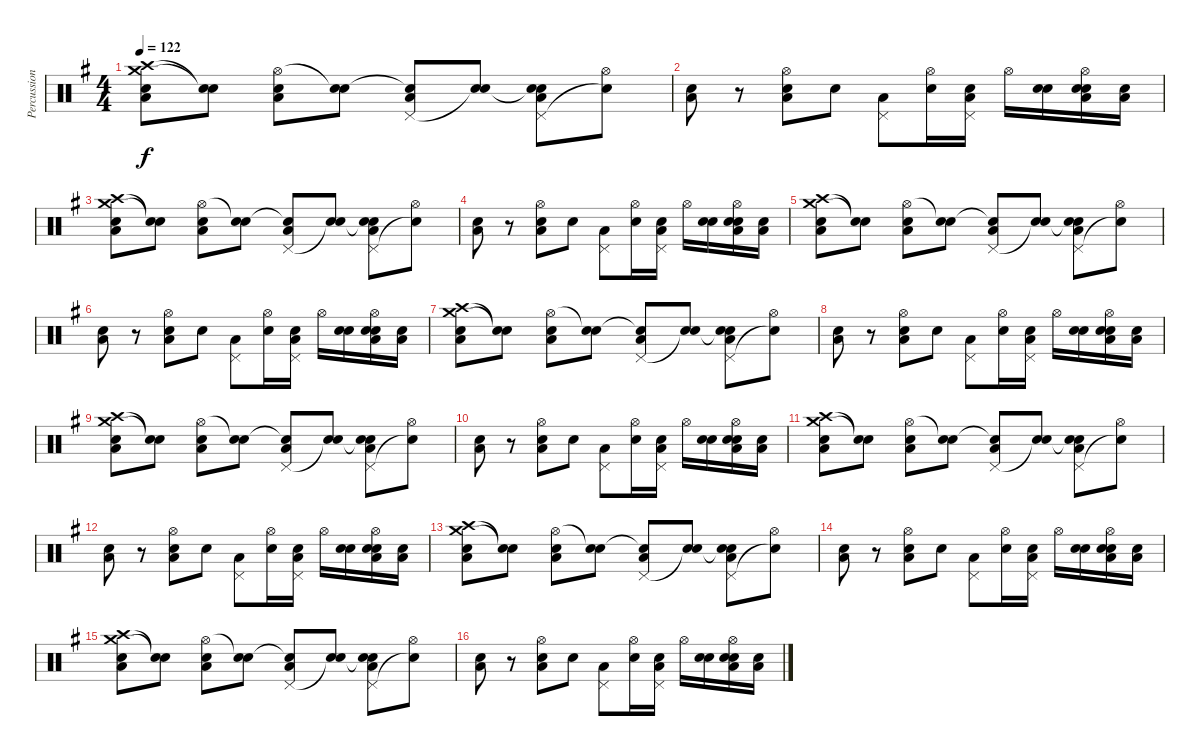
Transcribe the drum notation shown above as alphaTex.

\track ("Percussion" "Percussion") {instrument percussion}
\staff {score}
\articulation defaults
\ts (4 4)
\tempo 122
\clef neutral
\ks g
("Crash medium (hit)" "Crash high (hit)" "Snare (hit) 2" "Low Tom (hit)").8{dy f} ("Snare (hit)"{t} "Snare (hit)"{t}).8 ("Hi-Hat (open)" "Snare (hit) 2" "Low Tom (hit)").8 ("Snare (hit)"{t} "Electric Snare (hit)").8 ("Pedal Hi-Hat (hit)" "Snare (hit)"{t} "Low Tom (hit)").8 ("Snare (hit)"{t} "Snare (hit) 2").8 ("Pedal Hi-Hat (hit)" "Snare (hit)"{t} "Snare (hit) 2" "Low Tom (hit)").8 ("Snare (hit)"{t} "Hi-Hat (open)").8 |
("Snare (hit) 2" "Low Tom (hit)").8 r.8 ("Hi-Hat (open)" "Snare (hit) 2" "Low Tom (hit)").8 "Electric Snare (hit)".8 ("Pedal Hi-Hat (hit)" "Low Tom (hit)").8 ("Hi-Hat (open)" "Snare (hit) 2").16 ("Pedal Hi-Hat (hit)" "Electric Snare (hit)" "Low Tom (hit)").16 "Hi-Hat (open)".16 ("Electric Snare (hit)" "Snare (hit) 2").16 ("Hi-Hat (open)" "Electric Snare (hit)" "Snare (hit) 2" "Low Tom (hit)").16 ("Snare (hit) 2" "Low Tom (hit)").16 |
("Crash medium (hit)" "Crash high (hit)" "Snare (hit) 2" "Low Tom (hit)").8 ("Snare (hit)"{t} "Snare (hit)"{t}).8 ("Hi-Hat (open)" "Snare (hit) 2" "Low Tom (hit)").8 ("Snare (hit)"{t} "Electric Snare (hit)").8 ("Pedal Hi-Hat (hit)" "Snare (hit)"{t} "Low Tom (hit)").8 ("Snare (hit)"{t} "Snare (hit) 2").8 ("Pedal Hi-Hat (hit)" "Snare (hit)"{t} "Snare (hit) 2" "Low Tom (hit)").8 ("Snare (hit)"{t} "Hi-Hat (open)").8 |
("Snare (hit) 2" "Low Tom (hit)").8 r.8 ("Hi-Hat (open)" "Snare (hit) 2" "Low Tom (hit)").8 "Electric Snare (hit)".8 ("Pedal Hi-Hat (hit)" "Low Tom (hit)").8 ("Hi-Hat (open)" "Snare (hit) 2").16 ("Pedal Hi-Hat (hit)" "Electric Snare (hit)" "Low Tom (hit)").16 "Hi-Hat (open)".16 ("Electric Snare (hit)" "Snare (hit) 2").16 ("Hi-Hat (open)" "Electric Snare (hit)" "Snare (hit) 2" "Low Tom (hit)").16 ("Snare (hit) 2" "Low Tom (hit)").16 |
("Crash medium (hit)" "Crash high (hit)" "Snare (hit) 2" "Low Tom (hit)").8 ("Snare (hit)"{t} "Snare (hit)"{t}).8 ("Hi-Hat (open)" "Snare (hit) 2" "Low Tom (hit)").8 ("Snare (hit)"{t} "Electric Snare (hit)").8 ("Pedal Hi-Hat (hit)" "Snare (hit)"{t} "Low Tom (hit)").8 ("Snare (hit)"{t} "Snare (hit) 2").8 ("Pedal Hi-Hat (hit)" "Snare (hit)"{t} "Snare (hit) 2" "Low Tom (hit)").8 ("Snare (hit)"{t} "Hi-Hat (open)").8 |
("Snare (hit) 2" "Low Tom (hit)").8 r.8 ("Hi-Hat (open)" "Snare (hit) 2" "Low Tom (hit)").8 "Electric Snare (hit)".8 ("Pedal Hi-Hat (hit)" "Low Tom (hit)").8 ("Hi-Hat (open)" "Snare (hit) 2").16 ("Pedal Hi-Hat (hit)" "Electric Snare (hit)" "Low Tom (hit)").16 "Hi-Hat (open)".16 ("Electric Snare (hit)" "Snare (hit) 2").16 ("Hi-Hat (open)" "Electric Snare (hit)" "Snare (hit) 2" "Low Tom (hit)").16 ("Snare (hit) 2" "Low Tom (hit)").16 |
("Crash medium (hit)" "Crash high (hit)" "Snare (hit) 2" "Low Tom (hit)").8 ("Snare (hit)"{t} "Snare (hit)"{t}).8 ("Hi-Hat (open)" "Snare (hit) 2" "Low Tom (hit)").8 ("Snare (hit)"{t} "Electric Snare (hit)").8 ("Pedal Hi-Hat (hit)" "Snare (hit)"{t} "Low Tom (hit)").8 ("Snare (hit)"{t} "Snare (hit) 2").8 ("Pedal Hi-Hat (hit)" "Snare (hit)"{t} "Snare (hit) 2" "Low Tom (hit)").8 ("Snare (hit)"{t} "Hi-Hat (open)").8 |
("Snare (hit) 2" "Low Tom (hit)").8 r.8 ("Hi-Hat (open)" "Snare (hit) 2" "Low Tom (hit)").8 "Electric Snare (hit)".8 ("Pedal Hi-Hat (hit)" "Low Tom (hit)").8 ("Hi-Hat (open)" "Snare (hit) 2").16 ("Pedal Hi-Hat (hit)" "Electric Snare (hit)" "Low Tom (hit)").16 "Hi-Hat (open)".16 ("Electric Snare (hit)" "Snare (hit) 2").16 ("Hi-Hat (open)" "Electric Snare (hit)" "Snare (hit) 2" "Low Tom (hit)").16 ("Snare (hit) 2" "Low Tom (hit)").16 |
("Crash medium (hit)" "Crash high (hit)" "Snare (hit) 2" "Low Tom (hit)").8 ("Snare (hit)"{t} "Snare (hit)"{t}).8 ("Hi-Hat (open)" "Snare (hit) 2" "Low Tom (hit)").8 ("Snare (hit)"{t} "Electric Snare (hit)").8 ("Pedal Hi-Hat (hit)" "Snare (hit)"{t} "Low Tom (hit)").8 ("Snare (hit)"{t} "Snare (hit) 2").8 ("Pedal Hi-Hat (hit)" "Snare (hit)"{t} "Snare (hit) 2" "Low Tom (hit)").8 ("Snare (hit)"{t} "Hi-Hat (open)").8 |
("Snare (hit) 2" "Low Tom (hit)").8 r.8 ("Hi-Hat (open)" "Snare (hit) 2" "Low Tom (hit)").8 "Electric Snare (hit)".8 ("Pedal Hi-Hat (hit)" "Low Tom (hit)").8 ("Hi-Hat (open)" "Snare (hit) 2").16 ("Pedal Hi-Hat (hit)" "Electric Snare (hit)" "Low Tom (hit)").16 "Hi-Hat (open)".16 ("Electric Snare (hit)" "Snare (hit) 2").16 ("Hi-Hat (open)" "Electric Snare (hit)" "Snare (hit) 2" "Low Tom (hit)").16 ("Snare (hit) 2" "Low Tom (hit)").16 |
("Crash medium (hit)" "Crash high (hit)" "Snare (hit) 2" "Low Tom (hit)").8 ("Snare (hit)"{t} "Snare (hit)"{t}).8 ("Hi-Hat (open)" "Snare (hit) 2" "Low Tom (hit)").8 ("Snare (hit)"{t} "Electric Snare (hit)").8 ("Pedal Hi-Hat (hit)" "Snare (hit)"{t} "Low Tom (hit)").8 ("Snare (hit)"{t} "Snare (hit) 2").8 ("Pedal Hi-Hat (hit)" "Snare (hit)"{t} "Snare (hit) 2" "Low Tom (hit)").8 ("Snare (hit)"{t} "Hi-Hat (open)").8 |
("Snare (hit) 2" "Low Tom (hit)").8 r.8 ("Hi-Hat (open)" "Snare (hit) 2" "Low Tom (hit)").8 "Electric Snare (hit)".8 ("Pedal Hi-Hat (hit)" "Low Tom (hit)").8 ("Hi-Hat (open)" "Snare (hit) 2").16 ("Pedal Hi-Hat (hit)" "Electric Snare (hit)" "Low Tom (hit)").16 "Hi-Hat (open)".16 ("Electric Snare (hit)" "Snare (hit) 2").16 ("Hi-Hat (open)" "Electric Snare (hit)" "Snare (hit) 2" "Low Tom (hit)").16 ("Snare (hit) 2" "Low Tom (hit)").16 |
("Crash medium (hit)" "Crash high (hit)" "Snare (hit) 2" "Low Tom (hit)").8 ("Snare (hit)"{t} "Snare (hit)"{t}).8 ("Hi-Hat (open)" "Snare (hit) 2" "Low Tom (hit)").8 ("Snare (hit)"{t} "Electric Snare (hit)").8 ("Pedal Hi-Hat (hit)" "Snare (hit)"{t} "Low Tom (hit)").8 ("Snare (hit)"{t} "Snare (hit) 2").8 ("Pedal Hi-Hat (hit)" "Snare (hit)"{t} "Snare (hit) 2" "Low Tom (hit)").8 ("Snare (hit)"{t} "Hi-Hat (open)").8 |
("Snare (hit) 2" "Low Tom (hit)").8 r.8 ("Hi-Hat (open)" "Snare (hit) 2" "Low Tom (hit)").8 "Electric Snare (hit)".8 ("Pedal Hi-Hat (hit)" "Low Tom (hit)").8 ("Hi-Hat (open)" "Snare (hit) 2").16 ("Pedal Hi-Hat (hit)" "Electric Snare (hit)" "Low Tom (hit)").16 "Hi-Hat (open)".16 ("Electric Snare (hit)" "Snare (hit) 2").16 ("Hi-Hat (open)" "Electric Snare (hit)" "Snare (hit) 2" "Low Tom (hit)").16 ("Snare (hit) 2" "Low Tom (hit)").16 |
("Crash medium (hit)" "Crash high (hit)" "Snare (hit) 2" "Low Tom (hit)").8 ("Snare (hit)"{t} "Snare (hit)"{t}).8 ("Hi-Hat (open)" "Snare (hit) 2" "Low Tom (hit)").8 ("Snare (hit)"{t} "Electric Snare (hit)").8 ("Pedal Hi-Hat (hit)" "Snare (hit)"{t} "Low Tom (hit)").8 ("Snare (hit)"{t} "Snare (hit) 2").8 ("Pedal Hi-Hat (hit)" "Snare (hit)"{t} "Snare (hit) 2" "Low Tom (hit)").8 ("Snare (hit)"{t} "Hi-Hat (open)").8 |
("Snare (hit) 2" "Low Tom (hit)").8 r.8 ("Hi-Hat (open)" "Snare (hit) 2" "Low Tom (hit)").8 "Electric Snare (hit)".8 ("Pedal Hi-Hat (hit)" "Low Tom (hit)").8 ("Hi-Hat (open)" "Snare (hit) 2").16 ("Pedal Hi-Hat (hit)" "Electric Snare (hit)" "Low Tom (hit)").16 "Hi-Hat (open)".16 ("Electric Snare (hit)" "Snare (hit) 2").16 ("Hi-Hat (open)" "Electric Snare (hit)" "Snare (hit) 2" "Low Tom (hit)").16 ("Snare (hit) 2" "Low Tom (hit)").16
